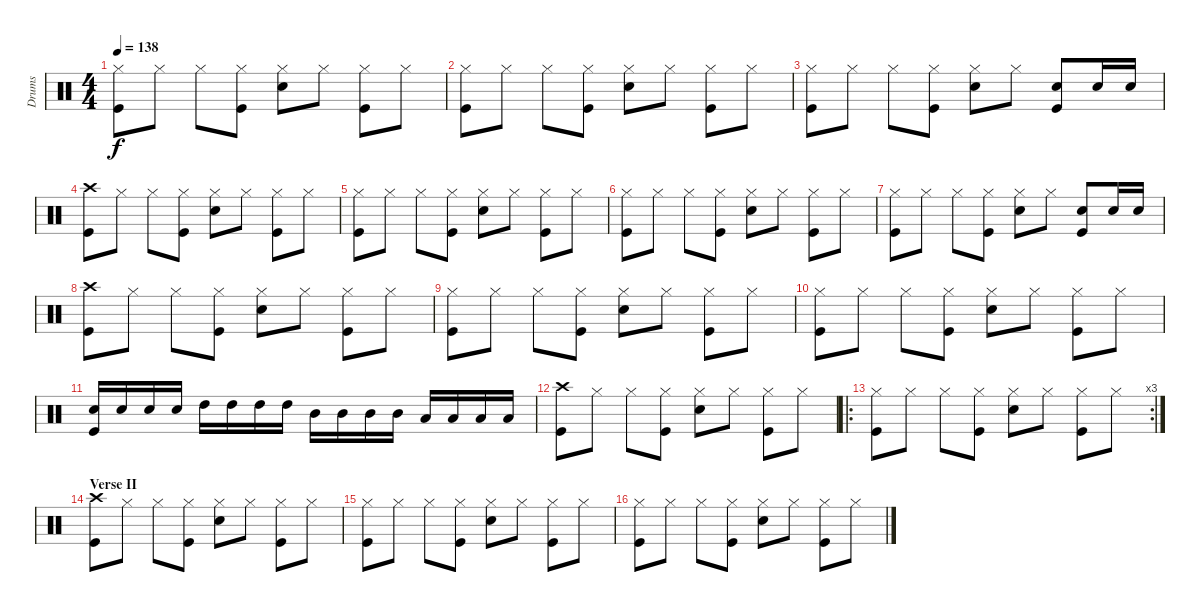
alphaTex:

\track ("Drums" "Drums") {instrument percussion}
\staff {score}
\articulation defaults
\ts (4 4)
\tempo 138
\clef neutral
\ks c
("Hi-Hat (closed)" "Kick (hit)").8{dy f} "Hi-Hat (closed)".8 "Hi-Hat (closed)".8 ("Hi-Hat (closed)" "Kick (hit)").8 ("Hi-Hat (closed)" "Snare (hit) 2").8 "Hi-Hat (closed)".8 ("Hi-Hat (closed)" "Kick (hit)").8 "Hi-Hat (closed)".8 |
("Hi-Hat (closed)" "Kick (hit)").8 "Hi-Hat (closed)".8 "Hi-Hat (closed)".8 ("Hi-Hat (closed)" "Kick (hit)").8 ("Hi-Hat (closed)" "Snare (hit) 2").8 "Hi-Hat (closed)".8 ("Hi-Hat (closed)" "Kick (hit)").8 "Hi-Hat (closed)".8 |
("Hi-Hat (closed)" "Kick (hit)").8 "Hi-Hat (closed)".8 "Hi-Hat (closed)".8 ("Hi-Hat (closed)" "Kick (hit)").8 ("Hi-Hat (closed)" "Snare (hit) 2").8 "Hi-Hat (closed)".8 ("Snare (hit) 2" "Kick (hit)").8 "Snare (hit) 2".16 "Snare (hit) 2".16 |
("Crash high (hit)" "Kick (hit)").8 "Hi-Hat (closed)".8 "Hi-Hat (closed)".8 ("Hi-Hat (closed)" "Kick (hit)").8 ("Hi-Hat (closed)" "Snare (hit) 2").8 "Hi-Hat (closed)".8 ("Hi-Hat (closed)" "Kick (hit)").8 "Hi-Hat (closed)".8 |
("Hi-Hat (closed)" "Kick (hit)").8 "Hi-Hat (closed)".8 "Hi-Hat (closed)".8 ("Hi-Hat (closed)" "Kick (hit)").8 ("Hi-Hat (closed)" "Snare (hit) 2").8 "Hi-Hat (closed)".8 ("Hi-Hat (closed)" "Kick (hit)").8 "Hi-Hat (closed)".8 |
("Hi-Hat (closed)" "Kick (hit)").8 "Hi-Hat (closed)".8 "Hi-Hat (closed)".8 ("Hi-Hat (closed)" "Kick (hit)").8 ("Hi-Hat (closed)" "Snare (hit) 2").8 "Hi-Hat (closed)".8 ("Hi-Hat (closed)" "Kick (hit)").8 "Hi-Hat (closed)".8 |
("Hi-Hat (closed)" "Kick (hit)").8 "Hi-Hat (closed)".8 "Hi-Hat (closed)".8 ("Hi-Hat (closed)" "Kick (hit)").8 ("Hi-Hat (closed)" "Snare (hit) 2").8 "Hi-Hat (closed)".8 ("Snare (hit) 2" "Kick (hit)").8 "Snare (hit) 2".16 "Snare (hit) 2".16 |
("Crash high (hit)" "Kick (hit)").8 "Hi-Hat (closed)".8 "Hi-Hat (closed)".8 ("Hi-Hat (closed)" "Kick (hit)").8 ("Hi-Hat (closed)" "Snare (hit) 2").8 "Hi-Hat (closed)".8 ("Hi-Hat (closed)" "Kick (hit)").8 "Hi-Hat (closed)".8 |
("Hi-Hat (closed)" "Kick (hit)").8 "Hi-Hat (closed)".8 "Hi-Hat (closed)".8 ("Hi-Hat (closed)" "Kick (hit)").8 ("Hi-Hat (closed)" "Snare (hit) 2").8 "Hi-Hat (closed)".8 ("Hi-Hat (closed)" "Kick (hit)").8 "Hi-Hat (closed)".8 |
("Hi-Hat (closed)" "Kick (hit)").8 "Hi-Hat (closed)".8 "Hi-Hat (closed)".8 ("Hi-Hat (closed)" "Kick (hit)").8 ("Hi-Hat (closed)" "Snare (hit) 2").8 "Hi-Hat (closed)".8 ("Hi-Hat (closed)" "Kick (hit)").8 "Hi-Hat (closed)".8 |
("Snare (hit) 2" "Kick (hit)").16 "Snare (hit) 2".16 "Snare (hit) 2".16 "Snare (hit) 2".16 "High Tom (hit)".16 "High Tom (hit)".16 "High Tom (hit)".16 "High Tom (hit)".16 "Mid Tom (hit)".16 "Mid Tom (hit)".16 "Mid Tom (hit)".16 "Mid Tom (hit)".16 "Low Tom (hit)".16 "Low Tom (hit)".16 "Low Tom (hit)".16 "Low Tom (hit)".16 |
("Crash high (hit)" "Kick (hit)").8 "Hi-Hat (closed)".8 "Hi-Hat (closed)".8 ("Hi-Hat (closed)" "Kick (hit)").8 ("Hi-Hat (closed)" "Snare (hit) 2").8 "Hi-Hat (closed)".8 ("Hi-Hat (closed)" "Kick (hit)").8 "Hi-Hat (closed)".8 |
\ro
\rc 3
("Hi-Hat (closed)" "Kick (hit)").8 "Hi-Hat (closed)".8 "Hi-Hat (closed)".8 ("Hi-Hat (closed)" "Kick (hit)").8 ("Hi-Hat (closed)" "Snare (hit) 2").8 "Hi-Hat (closed)".8 ("Hi-Hat (closed)" "Kick (hit)").8 "Hi-Hat (closed)".8 |
\section ("" "Verse II")
("Crash high (hit)" "Kick (hit)").8 "Hi-Hat (closed)".8 "Hi-Hat (closed)".8 ("Hi-Hat (closed)" "Kick (hit)").8 ("Hi-Hat (closed)" "Snare (hit) 2").8 "Hi-Hat (closed)".8 ("Hi-Hat (closed)" "Kick (hit)").8 "Hi-Hat (closed)".8 |
("Hi-Hat (closed)" "Kick (hit)").8 "Hi-Hat (closed)".8 "Hi-Hat (closed)".8 ("Hi-Hat (closed)" "Kick (hit)").8 ("Hi-Hat (closed)" "Snare (hit) 2").8 "Hi-Hat (closed)".8 ("Hi-Hat (closed)" "Kick (hit)").8 "Hi-Hat (closed)".8 |
("Hi-Hat (closed)" "Kick (hit)").8 "Hi-Hat (closed)".8 "Hi-Hat (closed)".8 ("Hi-Hat (closed)" "Kick (hit)").8 ("Hi-Hat (closed)" "Snare (hit) 2").8 "Hi-Hat (closed)".8 ("Hi-Hat (closed)" "Kick (hit)").8 "Hi-Hat (closed)".8
